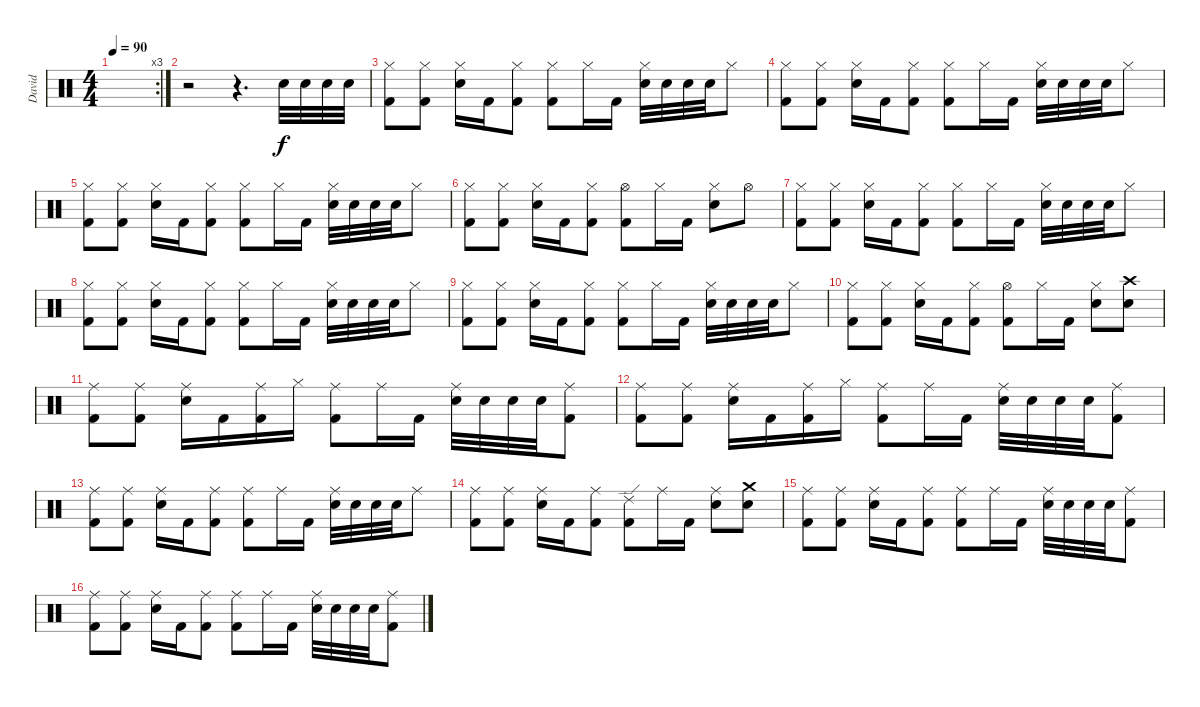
\track ("David" "David") {instrument percussion}
\staff {score}
\articulation defaults
\rc 3
\ts (4 4)
\tempo 90
\clef neutral
\ks c
|
r.2 r.4{d} "Electric Snare (hit)".32 "Electric Snare (hit)".32 "Electric Snare (hit)".32 "Electric Snare (hit)".32 |
("Hi-Hat (closed)" "Kick (hit) 2").8 ("Hi-Hat (closed)" "Kick (hit) 2").8 ("Hi-Hat (closed)" "Electric Snare (hit)").16 "Kick (hit) 2".16 ("Hi-Hat (closed)" "Kick (hit) 2").8 ("Hi-Hat (closed)" "Kick (hit) 2").8 "Hi-Hat (closed)".16 "Kick (hit) 2".16 ("Hi-Hat (closed)" "Electric Snare (hit)").32 "Electric Snare (hit)".32 "Electric Snare (hit)".32 "Electric Snare (hit)".32 "Hi-Hat (closed)".8 |
("Hi-Hat (closed)" "Kick (hit) 2").8 ("Hi-Hat (closed)" "Kick (hit) 2").8 ("Hi-Hat (closed)" "Electric Snare (hit)").16 "Kick (hit) 2".16 ("Hi-Hat (closed)" "Kick (hit) 2").8 ("Hi-Hat (closed)" "Kick (hit) 2").8 "Hi-Hat (closed)".16 "Kick (hit) 2".16 ("Hi-Hat (closed)" "Electric Snare (hit)").32 "Electric Snare (hit)".32 "Electric Snare (hit)".32 "Electric Snare (hit)".32 "Hi-Hat (closed)".8 |
("Hi-Hat (closed)" "Kick (hit) 2").8 ("Hi-Hat (closed)" "Kick (hit) 2").8 ("Hi-Hat (closed)" "Electric Snare (hit)").16 "Kick (hit) 2".16 ("Hi-Hat (closed)" "Kick (hit) 2").8 ("Hi-Hat (closed)" "Kick (hit) 2").8 "Hi-Hat (closed)".16 "Kick (hit) 2".16 ("Hi-Hat (closed)" "Electric Snare (hit)").32 "Electric Snare (hit)".32 "Electric Snare (hit)".32 "Electric Snare (hit)".32 "Hi-Hat (closed)".8 |
("Hi-Hat (closed)" "Kick (hit) 2").8 ("Hi-Hat (closed)" "Kick (hit) 2").8 ("Hi-Hat (closed)" "Electric Snare (hit)").16 "Kick (hit) 2".16 ("Hi-Hat (closed)" "Kick (hit) 2").8 ("Hi-Hat (open)" "Kick (hit) 2").8 "Hi-Hat (closed)".16 "Kick (hit) 2".16 ("Hi-Hat (closed)" "Electric Snare (hit)").8 "Hi-Hat (open)".8 |
("Hi-Hat (closed)" "Kick (hit) 2").8 ("Hi-Hat (closed)" "Kick (hit) 2").8 ("Hi-Hat (closed)" "Electric Snare (hit)").16 "Kick (hit) 2".16 ("Hi-Hat (closed)" "Kick (hit) 2").8 ("Hi-Hat (closed)" "Kick (hit) 2").8 "Hi-Hat (closed)".16 "Kick (hit) 2".16 ("Hi-Hat (closed)" "Electric Snare (hit)").32 "Electric Snare (hit)".32 "Electric Snare (hit)".32 "Electric Snare (hit)".32 "Hi-Hat (closed)".8 |
("Hi-Hat (closed)" "Kick (hit) 2").8 ("Hi-Hat (closed)" "Kick (hit) 2").8 ("Hi-Hat (closed)" "Electric Snare (hit)").16 "Kick (hit) 2".16 ("Hi-Hat (closed)" "Kick (hit) 2").8 ("Hi-Hat (closed)" "Kick (hit) 2").8 "Hi-Hat (closed)".16 "Kick (hit) 2".16 ("Hi-Hat (closed)" "Electric Snare (hit)").32 "Electric Snare (hit)".32 "Electric Snare (hit)".32 "Electric Snare (hit)".32 "Hi-Hat (closed)".8 |
("Hi-Hat (closed)" "Kick (hit) 2").8 ("Hi-Hat (closed)" "Kick (hit) 2").8 ("Hi-Hat (closed)" "Electric Snare (hit)").16 "Kick (hit) 2".16 ("Hi-Hat (closed)" "Kick (hit) 2").8 ("Hi-Hat (closed)" "Kick (hit) 2").8 "Hi-Hat (closed)".16 "Kick (hit) 2".16 ("Hi-Hat (closed)" "Electric Snare (hit)").32 "Electric Snare (hit)".32 "Electric Snare (hit)".32 "Electric Snare (hit)".32 "Hi-Hat (closed)".8 |
("Hi-Hat (closed)" "Kick (hit) 2").8 ("Hi-Hat (closed)" "Kick (hit) 2").8 ("Hi-Hat (closed)" "Electric Snare (hit)").16 "Kick (hit) 2".16 ("Hi-Hat (closed)" "Kick (hit) 2").8 ("Hi-Hat (open)" "Kick (hit) 2").8 "Hi-Hat (closed)".16 "Kick (hit) 2".16 ("Hi-Hat (closed)" "Electric Snare (hit)").8 ("Crash high (hit)" "Electric Snare (hit)").8 |
("Ride (middle)" "Kick (hit) 2").8 ("Ride (middle)" "Kick (hit) 2").8 ("Ride (middle)" "Electric Snare (hit)").16 "Kick (hit) 2".16 ("Ride (middle)" "Kick (hit) 2").16 "Hi-Hat (closed)".16 ("Ride (middle)" "Kick (hit) 2").8 "Ride (middle)".16 "Kick (hit) 2".16 ("Ride (middle)" "Electric Snare (hit)").32 "Electric Snare (hit)".32 "Electric Snare (hit)".32 "Electric Snare (hit)".32 ("Ride (middle)" "Kick (hit) 2").8 |
("Ride (middle)" "Kick (hit) 2").8 ("Ride (middle)" "Kick (hit) 2").8 ("Ride (middle)" "Electric Snare (hit)").16 "Kick (hit) 2".16 ("Ride (middle)" "Kick (hit) 2").16 "Hi-Hat (closed)".16 ("Ride (middle)" "Kick (hit) 2").8 "Ride (middle)".16 "Kick (hit) 2".16 ("Ride (middle)" "Electric Snare (hit)").32 "Electric Snare (hit)".32 "Electric Snare (hit)".32 "Electric Snare (hit)".32 ("Ride (middle)" "Kick (hit) 2").8 |
("Ride (middle)" "Kick (hit) 2").8 ("Ride (middle)" "Kick (hit) 2").8 ("Ride (middle)" "Electric Snare (hit)").16 "Kick (hit) 2".16 ("Ride (middle)" "Kick (hit) 2").8 ("Ride (middle)" "Kick (hit) 2").8 "Ride (middle)".16 "Kick (hit) 2".16 ("Ride (middle)" "Electric Snare (hit)").32 "Electric Snare (hit)".32 "Electric Snare (hit)".32 "Electric Snare (hit)".32 "Ride (middle)".8 |
("Ride (middle)" "Kick (hit) 2").8 ("Ride (middle)" "Kick (hit) 2").8 ("Ride (middle)" "Electric Snare (hit)").16 "Kick (hit) 2".16 ("Ride (middle)" "Kick (hit) 2").8 ("Ride (edge) 2" "Kick (hit) 2").8 "Ride (middle)".16 "Kick (hit) 2".16 ("Ride (middle)" "Electric Snare (hit)").8 ("Crash medium (hit)" "Electric Snare (hit)").8 |
("Ride (middle)" "Kick (hit) 2").8 ("Ride (middle)" "Kick (hit) 2").8 ("Ride (middle)" "Electric Snare (hit)").16 "Kick (hit) 2".16 ("Ride (middle)" "Kick (hit) 2").8 ("Ride (middle)" "Kick (hit) 2").8 "Ride (middle)".16 "Kick (hit) 2".16 ("Ride (middle)" "Electric Snare (hit)").32 "Electric Snare (hit)".32 "Electric Snare (hit)".32 "Electric Snare (hit)".32 ("Ride (middle)" "Kick (hit) 2").8 |
("Ride (middle)" "Kick (hit) 2").8 ("Ride (middle)" "Kick (hit) 2").8 ("Ride (middle)" "Electric Snare (hit)").16 "Kick (hit) 2".16 ("Ride (middle)" "Kick (hit) 2").8 ("Ride (middle)" "Kick (hit) 2").8 "Ride (middle)".16 "Kick (hit) 2".16 ("Ride (middle)" "Electric Snare (hit)").32 "Electric Snare (hit)".32 "Electric Snare (hit)".32 "Electric Snare (hit)".32 ("Ride (middle)" "Kick (hit) 2").8
